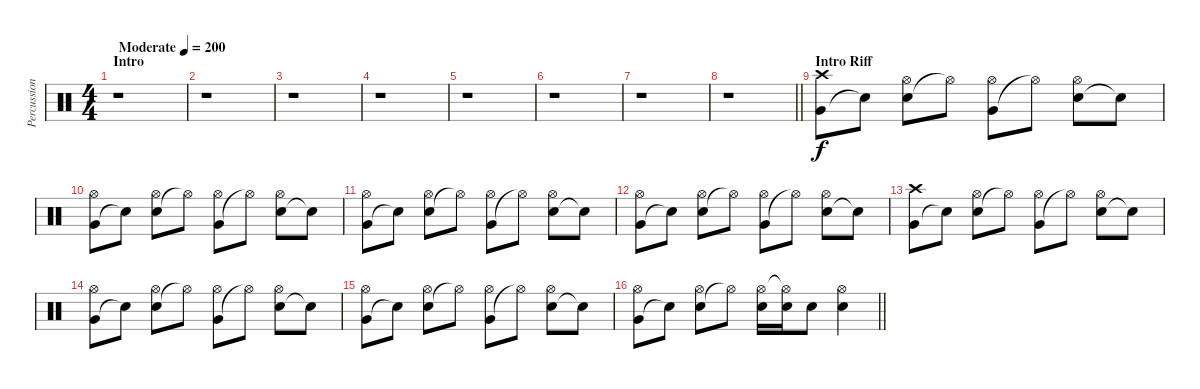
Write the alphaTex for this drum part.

\track ("Percussion" "Percussion") {instrument percussion}
\staff {score}
\articulation defaults
\ts (4 4)
\section ("" "Intro")
\tempo (200 "Moderate")
\clef neutral
\ks c
r.1{dy f} |
r.1 |
r.1 |
r.1 |
r.1 |
r.1 |
r.1 |
\barLineRight lightlight
r.1 |
\section ("" "Intro Riff")
("Very Low Tom (hit)" "Crash high (hit)").8 "Snare (hit)"{t}.8 ("Snare (hit) 2" "Hi-Hat (open)").8 "Hi-Hat (open)"{t}.8 ("Very Low Tom (hit)" "Hi-Hat (open)").8 "Hi-Hat (open)"{t}.8 ("Snare (hit) 2" "Hi-Hat (open)").8 "Snare (hit)"{t}.8 |
("Very Low Tom (hit)" "Hi-Hat (open)").8 "Snare (hit)"{t}.8 ("Snare (hit) 2" "Hi-Hat (open)").8 "Hi-Hat (open)"{t}.8 ("Very Low Tom (hit)" "Hi-Hat (open)").8 "Hi-Hat (open)"{t}.8 ("Snare (hit) 2" "Hi-Hat (open)").8 "Snare (hit)"{t}.8 |
("Very Low Tom (hit)" "Hi-Hat (open)").8 "Snare (hit)"{t}.8 ("Snare (hit) 2" "Hi-Hat (open)").8 "Hi-Hat (open)"{t}.8 ("Very Low Tom (hit)" "Hi-Hat (open)").8 "Hi-Hat (open)"{t}.8 ("Snare (hit) 2" "Hi-Hat (open)").8 "Snare (hit)"{t}.8 |
("Very Low Tom (hit)" "Hi-Hat (open)").8 "Snare (hit)"{t}.8 ("Snare (hit) 2" "Hi-Hat (open)").8 "Hi-Hat (open)"{t}.8 ("Very Low Tom (hit)" "Hi-Hat (open)").8 "Hi-Hat (open)"{t}.8 ("Snare (hit) 2" "Hi-Hat (open)").8 "Snare (hit)"{t}.8 |
("Very Low Tom (hit)" "Crash high (hit)").8 "Snare (hit)"{t}.8 ("Snare (hit) 2" "Hi-Hat (open)").8 "Hi-Hat (open)"{t}.8 ("Very Low Tom (hit)" "Hi-Hat (open)").8 "Hi-Hat (open)"{t}.8 ("Snare (hit) 2" "Hi-Hat (open)").8 "Snare (hit)"{t}.8 |
("Very Low Tom (hit)" "Hi-Hat (open)").8 "Snare (hit)"{t}.8 ("Snare (hit) 2" "Hi-Hat (open)").8 "Hi-Hat (open)"{t}.8 ("Very Low Tom (hit)" "Hi-Hat (open)").8 "Hi-Hat (open)"{t}.8 ("Snare (hit) 2" "Hi-Hat (open)").8 "Snare (hit)"{t}.8 |
("Very Low Tom (hit)" "Hi-Hat (open)").8 "Snare (hit)"{t}.8 ("Snare (hit) 2" "Hi-Hat (open)").8 "Hi-Hat (open)"{t}.8 ("Very Low Tom (hit)" "Hi-Hat (open)").8 "Hi-Hat (open)"{t}.8 ("Snare (hit) 2" "Hi-Hat (open)").8 "Snare (hit)"{t}.8 |
\barLineRight lightlight
("Very Low Tom (hit)" "Hi-Hat (open)").8 "Snare (hit)"{t}.8 ("Snare (hit) 2" "Hi-Hat (open)").8 "Hi-Hat (open)"{t}.8 ("Electric Snare (hit)" "Hi-Hat (open)").16 ("Electric Snare (hit)" "Hi-Hat (open)"{t}).16 "Electric Snare (hit)".8 ("Snare (hit) 2" "Hi-Hat (open)").4
